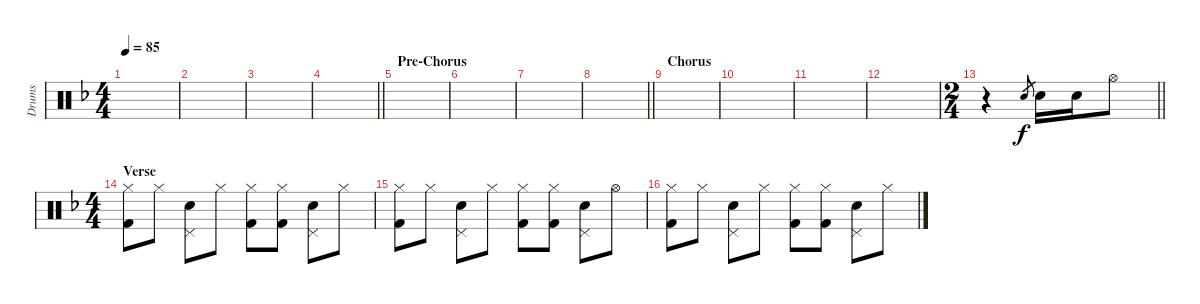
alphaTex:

\track ("Drums" "Drums") {instrument percussion}
\staff
\articulation defaults
\ts (4 4)
\tempo 85
\clef neutral
\ks f
|
|
|
\barLineRight lightlight
|
\section ("" "Pre-Chorus")
|
|
|
\barLineRight lightlight
|
\section ("" "Chorus")
|
|
|
|
\ts (2 4)
\barLineRight lightlight
r.4 "Snare (hit) 2".8{gr} "Snare (hit) 2".16 "Snare (hit) 2".16 "Hi-Hat (open)".8 |
\ts (4 4)
\section ("" "Verse")
("Hi-Hat (closed)" "Kick (hit) 2").8 "Hi-Hat (closed)".8 ("Pedal Hi-Hat (hit)" "Snare (hit) 2").8 "Hi-Hat (closed)".8 ("Hi-Hat (closed)" "Kick (hit) 2").8 ("Hi-Hat (closed)" "Kick (hit) 2").8 ("Pedal Hi-Hat (hit)" "Snare (hit) 2").8 "Hi-Hat (closed)".8 |
("Hi-Hat (closed)" "Kick (hit) 2").8 "Hi-Hat (closed)".8 ("Pedal Hi-Hat (hit)" "Snare (hit) 2").8 "Hi-Hat (closed)".8 ("Hi-Hat (closed)" "Kick (hit) 2").8 ("Hi-Hat (closed)" "Kick (hit) 2").8 ("Pedal Hi-Hat (hit)" "Snare (hit) 2").8 "Hi-Hat (open)".8 |
("Hi-Hat (closed)" "Kick (hit) 2").8 "Hi-Hat (closed)".8 ("Pedal Hi-Hat (hit)" "Snare (hit) 2").8 "Hi-Hat (closed)".8 ("Hi-Hat (closed)" "Kick (hit) 2").8 ("Hi-Hat (closed)" "Kick (hit) 2").8 ("Pedal Hi-Hat (hit)" "Snare (hit) 2").8 "Hi-Hat (closed)".8
